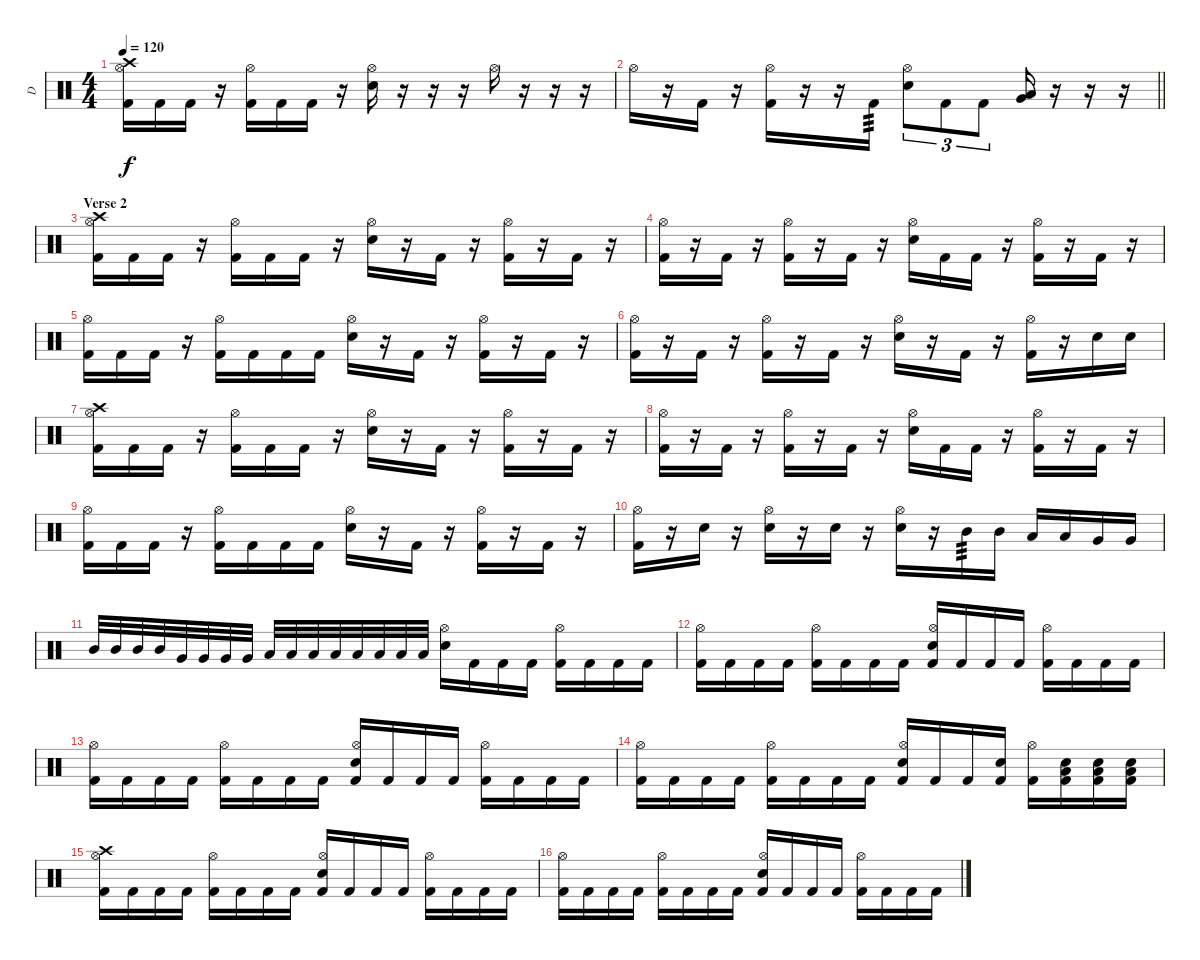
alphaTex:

\track ("D" "D") {instrument percussion}
\staff {score}
\articulation defaults
\ts (4 4)
\tempo 120
\clef neutral
\ks c
("Crash high (hit)" "Kick (hit) 2" "Hi-Hat (open)").16{dy f} "Kick (hit) 2".16 "Kick (hit) 2".16 r.16 ("Kick (hit) 2" "Hi-Hat (open)").16 "Kick (hit) 2".16 "Kick (hit) 2".16 r.16 ("Electric Snare (hit)" "Hi-Hat (open)").16 r.16 r.16 r.16 "Hi-Hat (open)".16 r.16 r.16 r.16 |
\barLineRight lightlight "Hi-Hat (open)".16
r.16 "Kick (hit) 2".16 r.16 ("Kick (hit) 2" "Hi-Hat (open)").16 r.16 r.16 "Kick (hit) 2".16{tp 3} ("Electric Snare (hit)" "Hi-Hat (open)").8{tu (3 2)} "Kick (hit) 2".8{tu (3 2)} "Kick (hit) 2".8{tu (3 2)} ("Very Low Tom (hit)" "Low Tom (hit)").16 r.16 r.16 r.16 |
\section ("" "Verse 2")
("Crash high (hit)" "Kick (hit) 2" "Hi-Hat (open)").16 "Kick (hit) 2".16 "Kick (hit) 2".16 r.16 ("Kick (hit) 2" "Hi-Hat (open)").16 "Kick (hit) 2".16 "Kick (hit) 2".16 r.16 ("Electric Snare (hit)" "Hi-Hat (open)").16 r.16 "Kick (hit) 2".16 r.16 ("Kick (hit) 2" "Hi-Hat (open)").16 r.16 "Kick (hit) 2".16 r.16 |
("Kick (hit) 2" "Hi-Hat (open)").16 r.16 "Kick (hit) 2".16 r.16 ("Kick (hit) 2" "Hi-Hat (open)").16 r.16 "Kick (hit) 2".16 r.16 ("Electric Snare (hit)" "Hi-Hat (open)").16 "Kick (hit) 2".16 "Kick (hit) 2".16 r.16 ("Kick (hit) 2" "Hi-Hat (open)").16 r.16 "Kick (hit) 2".16 r.16 |
("Kick (hit) 2" "Hi-Hat (open)").16 "Kick (hit) 2".16 "Kick (hit) 2".16 r.16 ("Kick (hit) 2" "Hi-Hat (open)").16 "Kick (hit) 2".16 "Kick (hit) 2".16 "Kick (hit) 2".16 ("Electric Snare (hit)" "Hi-Hat (open)").16 r.16 "Kick (hit) 2".16 r.16 ("Kick (hit) 2" "Hi-Hat (open)").16 r.16 "Kick (hit) 2".16 r.16 |
("Kick (hit) 2" "Hi-Hat (open)").16 r.16 "Kick (hit) 2".16 r.16 ("Kick (hit) 2" "Hi-Hat (open)").16 r.16 "Kick (hit) 2".16 r.16 ("Electric Snare (hit)" "Hi-Hat (open)").16 r.16 "Kick (hit) 2".16 r.16 ("Kick (hit) 2" "Hi-Hat (open)").16 r.16 "Electric Snare (hit)".16 "Electric Snare (hit)".16 |
("Crash high (hit)" "Kick (hit) 2" "Hi-Hat (open)").16 "Kick (hit) 2".16 "Kick (hit) 2".16 r.16 ("Kick (hit) 2" "Hi-Hat (open)").16 "Kick (hit) 2".16 "Kick (hit) 2".16 r.16 ("Electric Snare (hit)" "Hi-Hat (open)").16 r.16 "Kick (hit) 2".16 r.16 ("Kick (hit) 2" "Hi-Hat (open)").16 r.16 "Kick (hit) 2".16 r.16 |
("Kick (hit) 2" "Hi-Hat (open)").16 r.16 "Kick (hit) 2".16 r.16 ("Kick (hit) 2" "Hi-Hat (open)").16 r.16 "Kick (hit) 2".16 r.16 ("Electric Snare (hit)" "Hi-Hat (open)").16 "Kick (hit) 2".16 "Kick (hit) 2".16 r.16 ("Kick (hit) 2" "Hi-Hat (open)").16 r.16 "Kick (hit) 2".16 r.16 |
("Kick (hit) 2" "Hi-Hat (open)").16 "Kick (hit) 2".16 "Kick (hit) 2".16 r.16 ("Kick (hit) 2" "Hi-Hat (open)").16 "Kick (hit) 2".16 "Kick (hit) 2".16 "Kick (hit) 2".16 ("Electric Snare (hit)" "Hi-Hat (open)").16 r.16 "Kick (hit) 2".16 r.16 ("Kick (hit) 2" "Hi-Hat (open)").16 r.16 "Kick (hit) 2".16 r.16 |
("Kick (hit) 2" "Hi-Hat (open)").16 r.16 "Electric Snare (hit)".16 r.16 ("Electric Snare (hit)" "Hi-Hat (open)").16 r.16 "Electric Snare (hit)".16 r.16 ("Electric Snare (hit)" "Hi-Hat (open)").16 r.16 "Mid Tom (hit)".16{tp 3} "Mid Tom (hit)".16 "Low Tom (hit)".16 "Low Tom (hit)".16 "Very Low Tom (hit)".16 "Very Low Tom (hit)".16 |
"Mid Tom (hit)".32 "Mid Tom (hit)".32 "Mid Tom (hit)".32 "Mid Tom (hit)".32 "Very Low Tom (hit)".32 "Very Low Tom (hit)".32 "Very Low Tom (hit)".32 "Very Low Tom (hit)".32 "Low Tom (hit)".32 "Low Tom (hit)".32 "Low Tom (hit)".32 "Low Tom (hit)".32 "Low Floor Tom (hit)".32 "Low Floor Tom (hit)".32 "Low Floor Tom (hit)".32 "Low Floor Tom (hit)".32 ("Electric Snare (hit)" "Hi-Hat (open)").16 "Kick (hit) 2".16 "Kick (hit) 2".16 "Kick (hit) 2".16 ("Kick (hit) 2" "Hi-Hat (open)").16 "Kick (hit) 2".16 "Kick (hit) 2".16 "Kick (hit) 2".16 |
("Kick (hit) 2" "Hi-Hat (open)").16 "Kick (hit) 2".16 "Kick (hit) 2".16 "Kick (hit) 2".16 ("Kick (hit) 2" "Hi-Hat (open)").16 "Kick (hit) 2".16 "Kick (hit) 2".16 "Kick (hit) 2".16 ("Electric Snare (hit)" "Kick (hit) 2" "Hi-Hat (open)").16 "Kick (hit) 2".16 "Kick (hit) 2".16 "Kick (hit) 2".16 ("Kick (hit) 2" "Hi-Hat (open)").16 "Kick (hit) 2".16 "Kick (hit) 2".16 "Kick (hit) 2".16 |
("Kick (hit) 2" "Hi-Hat (open)").16 "Kick (hit) 2".16 "Kick (hit) 2".16 "Kick (hit) 2".16 ("Kick (hit) 2" "Hi-Hat (open)").16 "Kick (hit) 2".16 "Kick (hit) 2".16 "Kick (hit) 2".16 ("Electric Snare (hit)" "Kick (hit) 2" "Hi-Hat (open)").16 "Kick (hit) 2".16 "Kick (hit) 2".16 "Kick (hit) 2".16 ("Kick (hit) 2" "Hi-Hat (open)").16 "Kick (hit) 2".16 "Kick (hit) 2".16 "Kick (hit) 2".16 |
("Kick (hit) 2" "Hi-Hat (open)").16 "Kick (hit) 2".16 "Kick (hit) 2".16 "Kick (hit) 2".16 ("Kick (hit) 2" "Hi-Hat (open)").16 "Kick (hit) 2".16 "Kick (hit) 2".16 "Kick (hit) 2".16 ("Electric Snare (hit)" "Kick (hit) 2" "Hi-Hat (open)").16 "Kick (hit) 2".16 "Kick (hit) 2".16 ("Electric Snare (hit)" "Kick (hit) 2").16 ("Kick (hit) 2" "Hi-Hat (open)").16 ("Electric Snare (hit)" "Low Tom (hit)" "Kick (hit) 2").16 ("Electric Snare (hit)" "Low Tom (hit)" "Kick (hit) 2").16 ("Electric Snare (hit)" "Low Tom (hit)" "Kick (hit) 2").16 |
("Crash high (hit)" "Kick (hit) 2" "Hi-Hat (open)").16 "Kick (hit) 2".16 "Kick (hit) 2".16 "Kick (hit) 2".16 ("Kick (hit) 2" "Hi-Hat (open)").16 "Kick (hit) 2".16 "Kick (hit) 2".16 "Kick (hit) 2".16 ("Electric Snare (hit)" "Kick (hit) 2" "Hi-Hat (open)").16 "Kick (hit) 2".16 "Kick (hit) 2".16 "Kick (hit) 2".16 ("Kick (hit) 2" "Hi-Hat (open)").16 "Kick (hit) 2".16 "Kick (hit) 2".16 "Kick (hit) 2".16 |
("Kick (hit) 2" "Hi-Hat (open)").16 "Kick (hit) 2".16 "Kick (hit) 2".16 "Kick (hit) 2".16 ("Kick (hit) 2" "Hi-Hat (open)").16 "Kick (hit) 2".16 "Kick (hit) 2".16 "Kick (hit) 2".16 ("Electric Snare (hit)" "Kick (hit) 2" "Hi-Hat (open)").16 "Kick (hit) 2".16 "Kick (hit) 2".16 "Kick (hit) 2".16 ("Kick (hit) 2" "Hi-Hat (open)").16 "Kick (hit) 2".16 "Kick (hit) 2".16 "Kick (hit) 2".16
